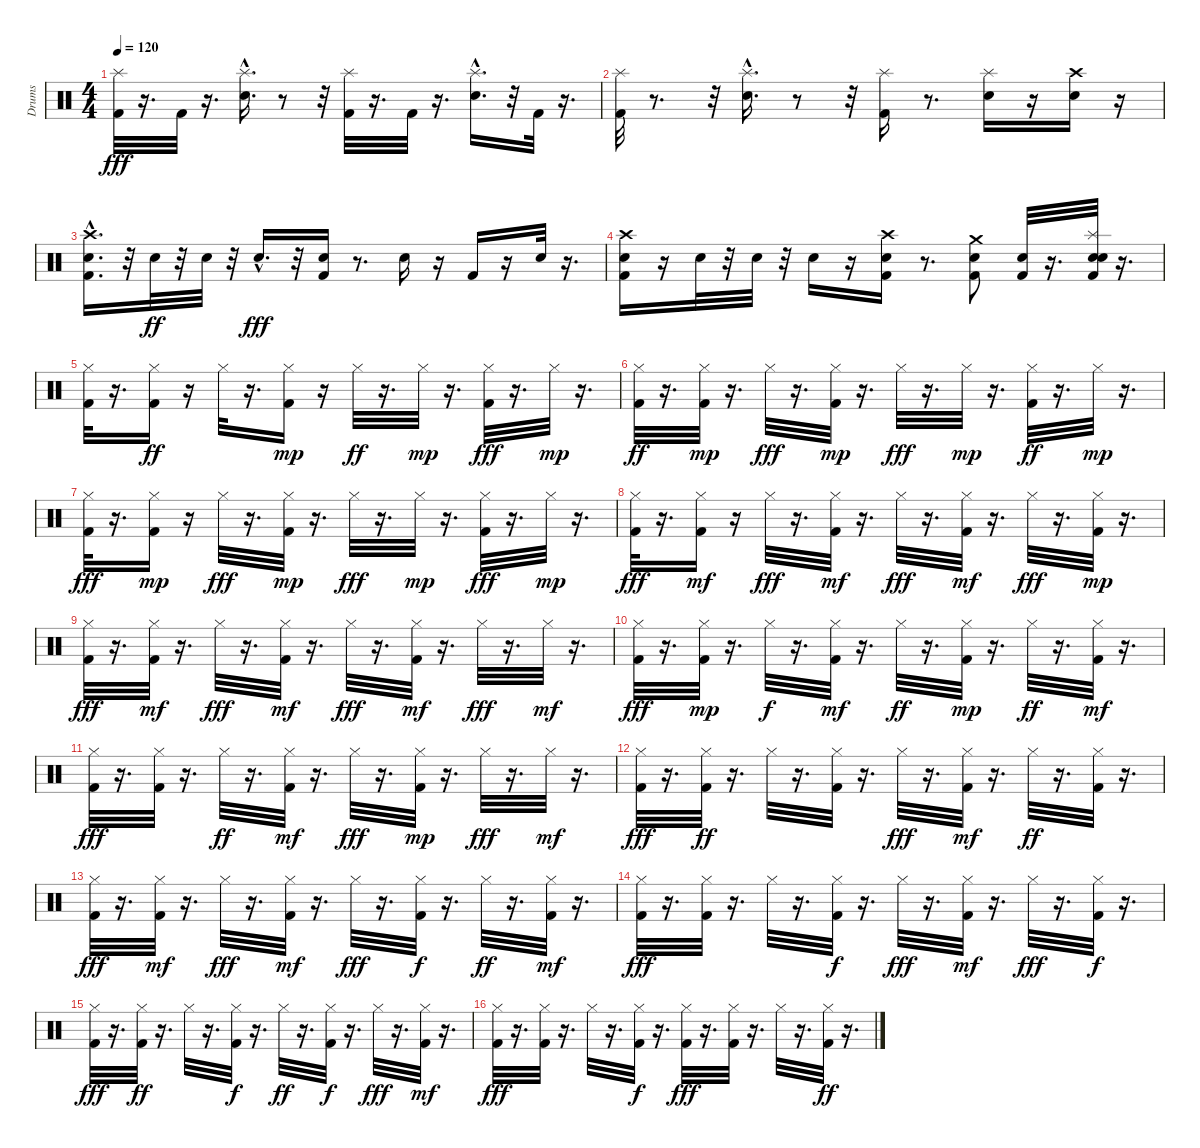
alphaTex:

\track ("Drums" "Drums") {instrument percussion}
\staff {score}
\articulation defaults
\ts (4 4)
\tempo 120
\clef neutral
\ks c
("Kick (hit) 2" "Splash (hit)").32{dy fff} r.16{d} "Kick (hit) 2".32 r.16{d} ("Electric Snare (hit)"{hac} "Splash (hit)").16{d} r.8 r.32 ("Kick (hit) 2" "Splash (hit)").32 r.16{d} "Kick (hit) 2".32 r.16{d} ("Electric Snare (hit)"{hac} "Splash (hit)").16{d} r.32 "Kick (hit) 2".32 r.16{d} |
("Kick (hit) 2" "Splash (hit)").32 r.8{d} r.32 ("Electric Snare (hit)"{hac} "Splash (hit)").16{d} r.8 r.32 ("Kick (hit) 2" "Splash (hit)").16 r.8{d} ("Electric Snare (hit)" "Splash (hit)").16 r.16 ("Electric Snare (hit)" "Crash high (hit)").16 r.16 |
("Kick (hit) 2"{hac} "Electric Snare (hit)" "Crash high (hit)").16{d} r.32 "Electric Snare (hit)".32{dy ff} r.32 "Electric Snare (hit)".32 r.32 "Electric Snare (hit)"{hac}.16{d dy fff} r.32 ("Kick (hit) 2" "Electric Snare (hit)").16 r.8{d} "Electric Snare (hit)".16 r.16 "Kick (hit) 2".16 r.16 "Electric Snare (hit)".32 r.16{d} |
("Kick (hit) 2" "Electric Snare (hit)" "Crash high (hit)").16 r.16 "Electric Snare (hit)".32 r.32 "Electric Snare (hit)".32 r.32 "Electric Snare (hit)".16 r.16 ("Kick (hit) 2" "Electric Snare (hit)" "Crash high (hit)").16 r.8{d} ("Kick (hit) 2" "Electric Snare (hit)" "Crash medium (hit)").8 ("Kick (hit) 2" "Electric Snare (hit)").32 r.16{d} ("Kick (hit) 2" "Snare (hit) 2" "Electric Snare (hit)" "Splash (hit)").32 r.16{d} |
("Kick (hit) 2" "Hi-Hat (closed)").32 r.16{d} ("Kick (hit) 2" "Hi-Hat (closed)").16{dy ff} r.16 "Hi-Hat (closed)".32 r.16{d} ("Kick (hit) 2" "Hi-Hat (closed)").16{dy mp} r.16 "Hi-Hat (closed)".32{dy ff} r.16{d} "Hi-Hat (closed)".32{dy mp} r.16{d} ("Kick (hit) 2" "Hi-Hat (closed)").32{dy fff} r.16{d} "Hi-Hat (closed)".32{dy mp} r.16{d} |
("Kick (hit) 2" "Hi-Hat (closed)").32{dy ff} r.16{d} ("Kick (hit) 2" "Hi-Hat (closed)").32{dy mp} r.16{d} "Hi-Hat (closed)".32{dy fff} r.16{d} ("Kick (hit) 2" "Hi-Hat (closed)").32{dy mp} r.16{d} "Hi-Hat (closed)".32{dy fff} r.16{d} "Hi-Hat (closed)".32{dy mp} r.16{d} ("Kick (hit) 2" "Hi-Hat (closed)").32{dy ff} r.16{d} "Hi-Hat (closed)".32{dy mp} r.16{d} |
("Kick (hit) 2" "Hi-Hat (closed)").32{dy fff} r.16{d} ("Kick (hit) 2" "Hi-Hat (closed)").16{dy mp} r.16 "Hi-Hat (closed)".32{dy fff} r.16{d} ("Kick (hit) 2" "Hi-Hat (closed)").32{dy mp} r.16{d} "Hi-Hat (closed)".32{dy fff} r.16{d} "Hi-Hat (closed)".32{dy mp} r.16{d} ("Kick (hit) 2" "Hi-Hat (closed)").32{dy fff} r.16{d} "Hi-Hat (closed)".32{dy mp} r.16{d} |
("Kick (hit) 2" "Hi-Hat (closed)").32{dy fff} r.16{d} ("Kick (hit) 2" "Hi-Hat (closed)").16{dy mf} r.16 "Hi-Hat (closed)".32{dy fff} r.16{d} ("Kick (hit) 2" "Hi-Hat (closed)").32{dy mf} r.16{d} "Hi-Hat (closed)".32{dy fff} r.16{d} ("Kick (hit) 2" "Hi-Hat (closed)").32{dy mf} r.16{d} "Hi-Hat (closed)".32{dy fff} r.16{d} ("Kick (hit) 2" "Hi-Hat (closed)").32{dy mp} r.16{d} |
("Kick (hit) 2" "Hi-Hat (closed)").32{dy fff} r.16{d} ("Kick (hit) 2" "Hi-Hat (closed)").32{dy mf} r.16{d} "Hi-Hat (closed)".32{dy fff} r.16{d} ("Kick (hit) 2" "Hi-Hat (closed)").32{dy mf} r.16{d} "Hi-Hat (closed)".32{dy fff} r.16{d} ("Kick (hit) 2" "Hi-Hat (closed)").32{dy mf} r.16{d} "Hi-Hat (closed)".32{dy fff} r.16{d} "Hi-Hat (closed)".32{dy mf} r.16{d} |
("Kick (hit) 2" "Hi-Hat (closed)").32{dy fff} r.16{d} ("Kick (hit) 2" "Hi-Hat (closed)").32{dy mp} r.16{d} "Hi-Hat (closed)".32{dy f} r.16{d} ("Kick (hit) 2" "Hi-Hat (closed)").32{dy mf} r.16{d} "Hi-Hat (closed)".32{dy ff} r.16{d} ("Kick (hit) 2" "Hi-Hat (closed)").32{dy mp} r.16{d} "Hi-Hat (closed)".32{dy ff} r.16{d} ("Kick (hit) 2" "Hi-Hat (closed)").32{dy mf} r.16{d} |
("Kick (hit) 2" "Hi-Hat (closed)").32{dy fff} r.16{d} ("Kick (hit) 2" "Hi-Hat (closed)").32 r.16{d} "Hi-Hat (closed)".32{dy ff} r.16{d} ("Kick (hit) 2" "Hi-Hat (closed)").32{dy mf} r.16{d} "Hi-Hat (closed)".32{dy fff} r.16{d} ("Kick (hit) 2" "Hi-Hat (closed)").32{dy mp} r.16{d} "Hi-Hat (closed)".32{dy fff} r.16{d} "Hi-Hat (closed)".32{dy mf} r.16{d} |
("Kick (hit) 2" "Hi-Hat (closed)").32{dy fff} r.16{d} ("Kick (hit) 2" "Hi-Hat (closed)").32{dy ff} r.16{d} "Hi-Hat (closed)".32 r.16{d} ("Kick (hit) 2" "Hi-Hat (closed)").32 r.16{d} "Hi-Hat (closed)".32{dy fff} r.16{d} ("Kick (hit) 2" "Hi-Hat (closed)").32{dy mf} r.16{d} "Hi-Hat (closed)".32{dy ff} r.16{d} ("Kick (hit) 2" "Hi-Hat (closed)").32 r.16{d} |
("Kick (hit) 2" "Hi-Hat (closed)").32{dy fff} r.16{d} ("Kick (hit) 2" "Hi-Hat (closed)").32{dy mf} r.16{d} "Hi-Hat (closed)".32{dy fff} r.16{d} ("Kick (hit) 2" "Hi-Hat (closed)").32{dy mf} r.16{d} "Hi-Hat (closed)".32{dy fff} r.16{d} ("Kick (hit) 2" "Hi-Hat (closed)").32{dy f} r.16{d} "Hi-Hat (closed)".32{dy ff} r.16{d} ("Kick (hit) 2" "Hi-Hat (closed)").32{dy mf} r.16{d} |
("Kick (hit) 2" "Hi-Hat (closed)").32{dy fff} r.16{d} ("Kick (hit) 2" "Hi-Hat (closed)").32 r.16{d} "Hi-Hat (closed)".32 r.16{d} ("Kick (hit) 2" "Hi-Hat (closed)").32{dy f} r.16{d} "Hi-Hat (closed)".32{dy fff} r.16{d} ("Kick (hit) 2" "Hi-Hat (closed)").32{dy mf} r.16{d} "Hi-Hat (closed)".32{dy fff} r.16{d} ("Kick (hit) 2" "Hi-Hat (closed)").32{dy f} r.16{d} |
("Kick (hit) 2" "Hi-Hat (closed)").32{dy fff} r.16{d} ("Kick (hit) 2" "Hi-Hat (closed)").32{dy ff} r.16{d} "Hi-Hat (closed)".32 r.16{d} ("Kick (hit) 2" "Hi-Hat (closed)").32{dy f} r.16{d} "Hi-Hat (closed)".32{dy ff} r.16{d} ("Kick (hit) 2" "Hi-Hat (closed)").32{dy f} r.16{d} "Hi-Hat (closed)".32{dy fff} r.16{d} ("Kick (hit) 2" "Hi-Hat (closed)").32{dy mf} r.16{d} |
("Kick (hit) 2" "Hi-Hat (closed)").32{dy fff} r.16{d} ("Kick (hit) 2" "Hi-Hat (closed)").32 r.16{d} "Hi-Hat (closed)".32 r.16{d} ("Kick (hit) 2" "Hi-Hat (closed)").32{dy f} r.16{d} ("Kick (hit) 2" "Hi-Hat (closed)").32{dy fff} r.16{d} ("Kick (hit) 2" "Hi-Hat (closed)").32 r.16{d} "Hi-Hat (closed)".32 r.16{d} ("Kick (hit) 2" "Hi-Hat (closed)").32{dy ff} r.16{d}
